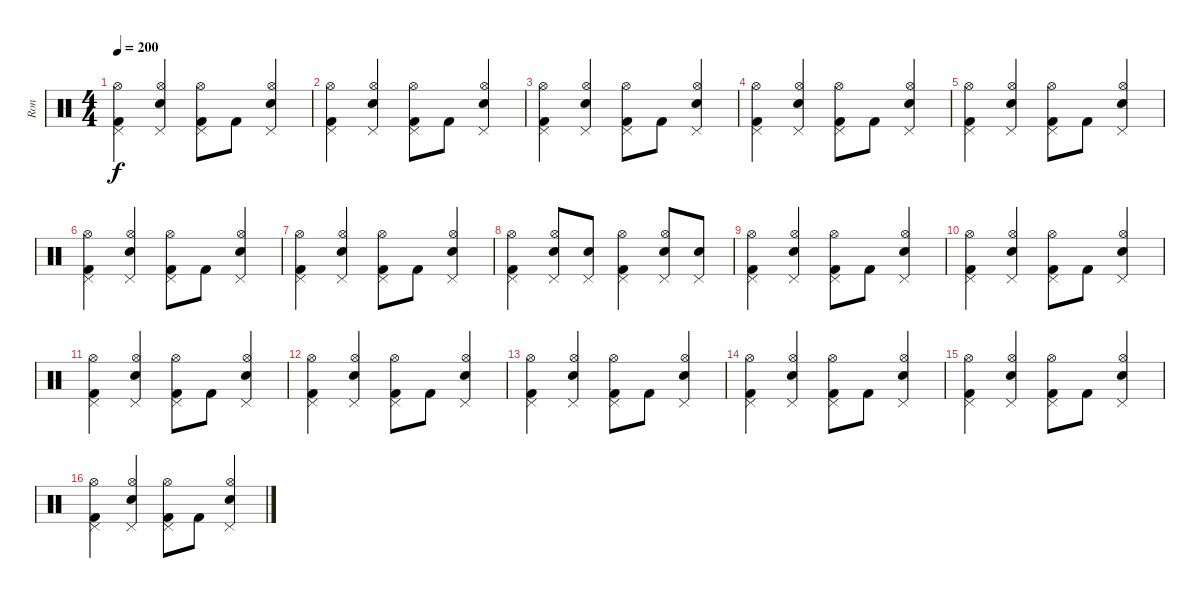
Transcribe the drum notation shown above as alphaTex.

\track ("Ron" "Ron") {instrument percussion}
\staff {score}
\articulation defaults
\ts (4 4)
\tempo 200
\clef neutral
\ks c
("Pedal Hi-Hat (hit)" "Kick (hit) 2" "Hi-Hat (open)").4{dy f} ("Electric Snare (hit)" "Pedal Hi-Hat (hit)" "Hi-Hat (open)").4 ("Pedal Hi-Hat (hit)" "Kick (hit) 2" "Hi-Hat (open)").8 "Kick (hit) 2".8 ("Electric Snare (hit)" "Pedal Hi-Hat (hit)" "Hi-Hat (open)").4 |
("Pedal Hi-Hat (hit)" "Kick (hit) 2" "Hi-Hat (open)").4 ("Electric Snare (hit)" "Pedal Hi-Hat (hit)" "Hi-Hat (open)").4 ("Pedal Hi-Hat (hit)" "Kick (hit) 2" "Hi-Hat (open)").8 "Kick (hit) 2".8 ("Electric Snare (hit)" "Pedal Hi-Hat (hit)" "Hi-Hat (open)").4 |
("Pedal Hi-Hat (hit)" "Kick (hit) 2" "Hi-Hat (open)").4 ("Electric Snare (hit)" "Pedal Hi-Hat (hit)" "Hi-Hat (open)").4 ("Pedal Hi-Hat (hit)" "Kick (hit) 2" "Hi-Hat (open)").8 "Kick (hit) 2".8 ("Electric Snare (hit)" "Pedal Hi-Hat (hit)" "Hi-Hat (open)").4 |
("Pedal Hi-Hat (hit)" "Kick (hit) 2" "Hi-Hat (open)").4 ("Electric Snare (hit)" "Pedal Hi-Hat (hit)" "Hi-Hat (open)").4 ("Pedal Hi-Hat (hit)" "Kick (hit) 2" "Hi-Hat (open)").8 "Kick (hit) 2".8 ("Electric Snare (hit)" "Pedal Hi-Hat (hit)" "Hi-Hat (open)").4 |
("Pedal Hi-Hat (hit)" "Kick (hit) 2" "Hi-Hat (open)").4 ("Electric Snare (hit)" "Pedal Hi-Hat (hit)" "Hi-Hat (open)").4 ("Pedal Hi-Hat (hit)" "Kick (hit) 2" "Hi-Hat (open)").8 "Kick (hit) 2".8 ("Electric Snare (hit)" "Pedal Hi-Hat (hit)" "Hi-Hat (open)").4 |
("Pedal Hi-Hat (hit)" "Kick (hit) 2" "Hi-Hat (open)").4 ("Electric Snare (hit)" "Pedal Hi-Hat (hit)" "Hi-Hat (open)").4 ("Pedal Hi-Hat (hit)" "Kick (hit) 2" "Hi-Hat (open)").8 "Kick (hit) 2".8 ("Electric Snare (hit)" "Pedal Hi-Hat (hit)" "Hi-Hat (open)").4 |
("Pedal Hi-Hat (hit)" "Kick (hit) 2" "Hi-Hat (open)").4 ("Electric Snare (hit)" "Pedal Hi-Hat (hit)" "Hi-Hat (open)").4 ("Pedal Hi-Hat (hit)" "Kick (hit) 2" "Hi-Hat (open)").8 "Kick (hit) 2".8 ("Electric Snare (hit)" "Pedal Hi-Hat (hit)" "Hi-Hat (open)").4 |
("Kick (hit) 2" "Hi-Hat (open)" "Pedal Hi-Hat (hit)").4 ("Hi-Hat (open)" "Electric Snare (hit)" "Pedal Hi-Hat (hit)").8 ("Electric Snare (hit)" "Pedal Hi-Hat (hit)").8 ("Kick (hit) 2" "Hi-Hat (open)" "Pedal Hi-Hat (hit)").4 ("Hi-Hat (open)" "Electric Snare (hit)" "Pedal Hi-Hat (hit)").8 ("Electric Snare (hit)" "Pedal Hi-Hat (hit)").8 |
("Pedal Hi-Hat (hit)" "Kick (hit) 2" "Hi-Hat (open)").4 ("Electric Snare (hit)" "Pedal Hi-Hat (hit)" "Hi-Hat (open)").4 ("Pedal Hi-Hat (hit)" "Kick (hit) 2" "Hi-Hat (open)").8 "Kick (hit) 2".8 ("Electric Snare (hit)" "Pedal Hi-Hat (hit)" "Hi-Hat (open)").4 |
("Pedal Hi-Hat (hit)" "Kick (hit) 2" "Hi-Hat (open)").4 ("Electric Snare (hit)" "Pedal Hi-Hat (hit)" "Hi-Hat (open)").4 ("Pedal Hi-Hat (hit)" "Kick (hit) 2" "Hi-Hat (open)").8 "Kick (hit) 2".8 ("Electric Snare (hit)" "Pedal Hi-Hat (hit)" "Hi-Hat (open)").4 |
("Pedal Hi-Hat (hit)" "Kick (hit) 2" "Hi-Hat (open)").4 ("Electric Snare (hit)" "Pedal Hi-Hat (hit)" "Hi-Hat (open)").4 ("Pedal Hi-Hat (hit)" "Kick (hit) 2" "Hi-Hat (open)").8 "Kick (hit) 2".8 ("Electric Snare (hit)" "Pedal Hi-Hat (hit)" "Hi-Hat (open)").4 |
("Pedal Hi-Hat (hit)" "Kick (hit) 2" "Hi-Hat (open)").4 ("Electric Snare (hit)" "Pedal Hi-Hat (hit)" "Hi-Hat (open)").4 ("Pedal Hi-Hat (hit)" "Kick (hit) 2" "Hi-Hat (open)").8 "Kick (hit) 2".8 ("Electric Snare (hit)" "Pedal Hi-Hat (hit)" "Hi-Hat (open)").4 |
("Pedal Hi-Hat (hit)" "Kick (hit) 2" "Hi-Hat (open)").4 ("Electric Snare (hit)" "Pedal Hi-Hat (hit)" "Hi-Hat (open)").4 ("Pedal Hi-Hat (hit)" "Kick (hit) 2" "Hi-Hat (open)").8 "Kick (hit) 2".8 ("Electric Snare (hit)" "Pedal Hi-Hat (hit)" "Hi-Hat (open)").4 |
("Pedal Hi-Hat (hit)" "Kick (hit) 2" "Hi-Hat (open)").4 ("Electric Snare (hit)" "Pedal Hi-Hat (hit)" "Hi-Hat (open)").4 ("Pedal Hi-Hat (hit)" "Kick (hit) 2" "Hi-Hat (open)").8 "Kick (hit) 2".8 ("Electric Snare (hit)" "Pedal Hi-Hat (hit)" "Hi-Hat (open)").4 |
("Pedal Hi-Hat (hit)" "Kick (hit) 2" "Hi-Hat (open)").4 ("Electric Snare (hit)" "Pedal Hi-Hat (hit)" "Hi-Hat (open)").4 ("Pedal Hi-Hat (hit)" "Kick (hit) 2" "Hi-Hat (open)").8 "Kick (hit) 2".8 ("Electric Snare (hit)" "Pedal Hi-Hat (hit)" "Hi-Hat (open)").4 |
("Pedal Hi-Hat (hit)" "Kick (hit) 2" "Hi-Hat (open)").4 ("Electric Snare (hit)" "Pedal Hi-Hat (hit)" "Hi-Hat (open)").4 ("Pedal Hi-Hat (hit)" "Kick (hit) 2" "Hi-Hat (open)").8 "Kick (hit) 2".8 ("Electric Snare (hit)" "Pedal Hi-Hat (hit)" "Hi-Hat (open)").4
